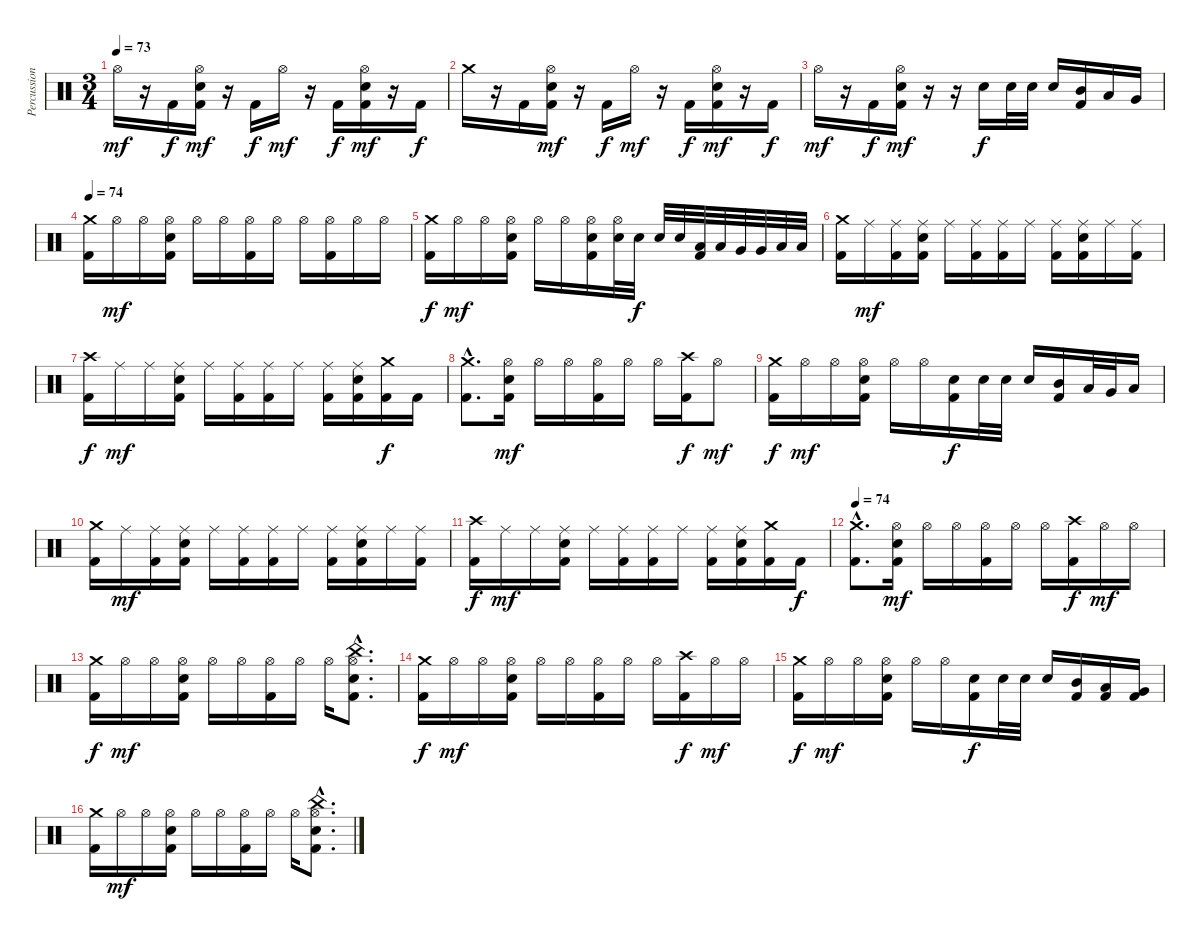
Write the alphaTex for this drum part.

\track ("Percussion" "Percussion") {instrument percussion}
\staff {score}
\articulation defaults
\ts (3 4)
\tempo 73
\clef neutral
\ks c "Hi-Hat (open)".16{dy mf}
r.16 "Kick (hit) 2".16{dy f} ("Hi-Hat (open)" "Electric Snare (hit)" "Kick (hit) 2").16{dy mf} r.16 "Kick (hit) 2".16{dy f} "Hi-Hat (open)".16{dy mf} r.16 "Kick (hit) 2".16{dy f} ("Hi-Hat (open)" "Electric Snare (hit)" "Kick (hit) 2").16{dy mf} r.16 "Kick (hit) 2".16{dy f} |
"Crash medium (hit)".16 r.16 "Kick (hit) 2".16 ("Hi-Hat (open)" "Electric Snare (hit)" "Kick (hit) 2").16{dy mf} r.16 "Kick (hit) 2".16{dy f} "Hi-Hat (open)".16{dy mf} r.16 "Kick (hit) 2".16{dy f} ("Hi-Hat (open)" "Electric Snare (hit)" "Kick (hit) 2").16{dy mf} r.16 "Kick (hit) 2".16{dy f} |
"Hi-Hat (open)".16{dy mf} r.16 "Kick (hit) 2".16{dy f} ("Hi-Hat (open)" "Electric Snare (hit)" "Kick (hit) 2").16{dy mf} r.16 r.16 "Electric Snare (hit)".16{dy f} "Electric Snare (hit)".32 "Electric Snare (hit)".32 "Electric Snare (hit)".16 ("Mid Tom (hit)" "Kick (hit) 2").16 "Low Tom (hit)".16 "Very Low Tom (hit)".16 |
\tempo 74
("Crash medium (hit)" "Kick (hit) 2").16 "Hi-Hat (open)".16{dy mf} "Hi-Hat (open)".16 ("Hi-Hat (open)" "Electric Snare (hit)" "Kick (hit) 2").16 "Hi-Hat (open)".16 "Hi-Hat (open)".16 ("Hi-Hat (open)" "Kick (hit) 2").16 "Hi-Hat (open)".16 "Hi-Hat (open)".16 ("Hi-Hat (open)" "Kick (hit) 2").16 "Hi-Hat (open)".16 "Hi-Hat (open)".16 |
("Crash medium (hit)" "Kick (hit) 2").16{dy f} "Hi-Hat (open)".16{dy mf} "Hi-Hat (open)".16 ("Hi-Hat (open)" "Electric Snare (hit)" "Kick (hit) 2").16 "Hi-Hat (open)".16 "Hi-Hat (open)".16 ("Hi-Hat (open)" "Electric Snare (hit)" "Kick (hit) 2").16 ("Hi-Hat (open)" "Electric Snare (hit)").32 "Electric Snare (hit)".32{dy f} "Electric Snare (hit)".32 "Electric Snare (hit)".32 ("Low Tom (hit)" "Kick (hit) 2").32 "Low Tom (hit)".32 "Very Low Tom (hit)".32 "Very Low Tom (hit)".32 "Low Floor Tom (hit)".32 "Low Floor Tom (hit)".32 |
("Crash medium (hit)" "Kick (hit) 2").16 "Ride (middle)".16{dy mf} ("Ride (middle)" "Kick (hit) 2").16 ("Ride (middle)" "Electric Snare (hit)" "Kick (hit) 2").16 "Ride (middle)".16 ("Ride (middle)" "Kick (hit) 2").16 ("Ride (middle)" "Kick (hit) 2").16 "Ride (middle)".16 ("Ride (middle)" "Kick (hit) 2").16 ("Ride (middle)" "Electric Snare (hit)" "Kick (hit) 2").16 "Ride (middle)".16 ("Ride (middle)" "Kick (hit) 2").16 |
("Crash high (hit)" "Kick (hit) 2").16{dy f} "Ride (middle)".16{dy mf} "Ride (middle)".16 ("Ride (middle)" "Electric Snare (hit)" "Kick (hit) 2").16 "Ride (middle)".16 ("Ride (middle)" "Kick (hit) 2").16 ("Ride (middle)" "Kick (hit) 2").16 "Ride (middle)".16 ("Ride (middle)" "Kick (hit) 2").16 ("Ride (middle)" "Electric Snare (hit)" "Kick (hit) 2").16 ("Crash medium (hit)" "Kick (hit) 2").16{dy f} "Kick (hit) 2".16 |
("Crash medium (hit)"{hac} "Kick (hit) 2"{hac}).8{d} ("Hi-Hat (open)" "Electric Snare (hit)" "Kick (hit) 2").16{dy mf} "Hi-Hat (open)".16 "Hi-Hat (open)".16 ("Hi-Hat (open)" "Kick (hit) 2").16 "Hi-Hat (open)".16 "Hi-Hat (open)".16 ("Crash high (hit)" "Kick (hit) 2").16{dy f} "Hi-Hat (open)".8{dy mf} |
("Crash medium (hit)" "Kick (hit) 2").16{dy f} "Hi-Hat (open)".16{dy mf} "Hi-Hat (open)".16 ("Hi-Hat (open)" "Electric Snare (hit)" "Kick (hit) 2").16 "Hi-Hat (open)".16 "Hi-Hat (open)".16 ("Electric Snare (hit)" "Kick (hit) 2").16{dy f} "Electric Snare (hit)".32 "Electric Snare (hit)".32 "Electric Snare (hit)".16 ("Mid Tom (hit)" "Kick (hit) 2").16 "Low Tom (hit)".32 "Very Low Tom (hit)".32 "Low Floor Tom (hit)".16 |
("Crash medium (hit)" "Kick (hit) 2").16 "Ride (middle)".16{dy mf} ("Ride (middle)" "Kick (hit) 2").16 ("Ride (middle)" "Electric Snare (hit)" "Kick (hit) 2").16 "Ride (middle)".16 ("Ride (middle)" "Kick (hit) 2").16 ("Ride (middle)" "Kick (hit) 2").16 "Ride (middle)".16 ("Ride (middle)" "Kick (hit) 2").16 ("Ride (middle)" "Electric Snare (hit)" "Kick (hit) 2").16 "Ride (middle)".16 ("Ride (middle)" "Kick (hit) 2").16 |
("Crash high (hit)" "Kick (hit) 2").16{dy f} "Ride (middle)".16{dy mf} "Ride (middle)".16 ("Ride (middle)" "Electric Snare (hit)" "Kick (hit) 2").16 "Ride (middle)".16 ("Ride (middle)" "Kick (hit) 2").16 ("Ride (middle)" "Kick (hit) 2").16 "Ride (middle)".16 ("Ride (middle)" "Kick (hit) 2").16 ("Ride (middle)" "Electric Snare (hit)" "Kick (hit) 2").16 ("Crash medium (hit)" "Kick (hit) 2").16 "Kick (hit) 2".16{dy f} |
\tempo 74
("Crash medium (hit)"{hac} "Kick (hit) 2"{hac}).8{d} ("Hi-Hat (open)" "Electric Snare (hit)" "Kick (hit) 2").16{dy mf} "Hi-Hat (open)".16 "Hi-Hat (open)".16 ("Hi-Hat (open)" "Kick (hit) 2").16 "Hi-Hat (open)".16 "Hi-Hat (open)".16 ("Crash high (hit)" "Kick (hit) 2").16{dy f} "Hi-Hat (open)".16{dy mf} "Hi-Hat (open)".16 |
("Crash medium (hit)" "Kick (hit) 2").16{dy f} "Hi-Hat (open)".16{dy mf} "Hi-Hat (open)".16 ("Hi-Hat (open)" "Electric Snare (hit)" "Kick (hit) 2").16 "Hi-Hat (open)".16 "Hi-Hat (open)".16 ("Hi-Hat (open)" "Kick (hit) 2").16 "Hi-Hat (open)".16 "Hi-Hat (open)".16 ("China (hit)"{hac} "Hi-Hat (open)"{hac} "Electric Snare (hit)"{hac} "Kick (hit) 2"{hac}).8{d} |
("Crash medium (hit)" "Kick (hit) 2").16{dy f} "Hi-Hat (open)".16{dy mf} "Hi-Hat (open)".16 ("Hi-Hat (open)" "Electric Snare (hit)" "Kick (hit) 2").16 "Hi-Hat (open)".16 "Hi-Hat (open)".16 ("Hi-Hat (open)" "Kick (hit) 2").16 "Hi-Hat (open)".16 "Hi-Hat (open)".16 ("Crash high (hit)" "Kick (hit) 2").16{dy f} "Hi-Hat (open)".16{dy mf} "Hi-Hat (open)".16 |
("Crash medium (hit)" "Kick (hit) 2").16{dy f} "Hi-Hat (open)".16{dy mf} "Hi-Hat (open)".16 ("Hi-Hat (open)" "Electric Snare (hit)" "Kick (hit) 2").16 "Hi-Hat (open)".16 "Hi-Hat (open)".16 ("Electric Snare (hit)" "Kick (hit) 2").16{dy f} "Electric Snare (hit)".32 "Electric Snare (hit)".32 "Electric Snare (hit)".16 ("Mid Tom (hit)" "Kick (hit) 2").16 ("Low Tom (hit)" "Kick (hit) 2").16 ("Very Low Tom (hit)" "Kick (hit) 2").16 |
("Crash medium (hit)" "Kick (hit) 2").16 "Hi-Hat (open)".16{dy mf} "Hi-Hat (open)".16 ("Hi-Hat (open)" "Electric Snare (hit)" "Kick (hit) 2").16 "Hi-Hat (open)".16 "Hi-Hat (open)".16 ("Hi-Hat (open)" "Kick (hit) 2").16 "Hi-Hat (open)".16 "Hi-Hat (open)".16 ("China (hit)"{hac} "Hi-Hat (open)"{hac} "Electric Snare (hit)"{hac} "Kick (hit) 2"{hac}).8{d}
